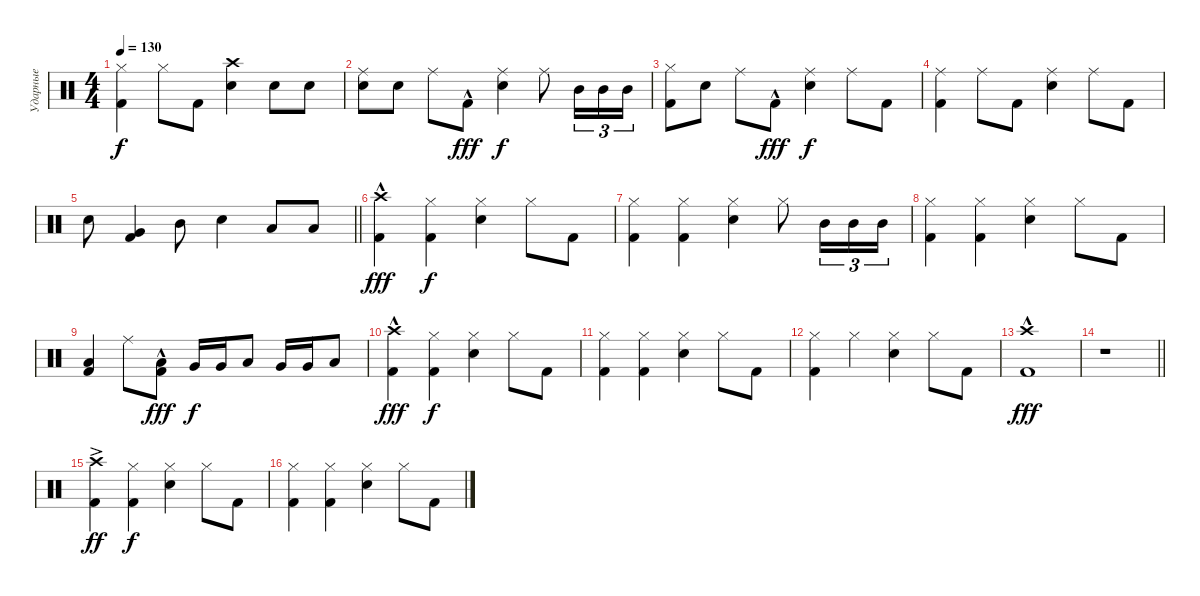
\track ("Ударные" "Ударные") {instrument percussion}
\staff {score}
\articulation defaults
\ts (4 4)
\tempo 130
\clef neutral
\ks c
("Kick (hit) 2" "Hi-Hat (closed)").4{dy f} "Hi-Hat (closed)".8 "Kick (hit) 2".8 ("Snare (hit) 2" "Crash high (hit)").4 "Snare (hit) 2".8 "Snare (hit) 2".8 |
("Snare (hit) 2" "Ride (middle)").8 "Snare (hit) 2".8 "Ride (middle)".8 "Kick (hit) 2"{hac}.8{dy fff} ("Snare (hit) 2" "Ride (middle)").4{dy f} "Ride (middle)".8 "Mid Tom (hit)".16{tu (3 2)} "Mid Tom (hit)".16{tu (3 2)} "Mid Tom (hit)".16{tu (3 2)} |
("Kick (hit) 2" "Hi-Hat (closed)").8 "Snare (hit) 2".8 "Ride (middle)".8 "Kick (hit) 2"{hac}.8{dy fff} ("Snare (hit) 2" "Ride (middle)").4{dy f} "Ride (middle)".8 "Kick (hit) 2".8 |
("Kick (hit) 2" "Ride (middle)").4 "Ride (middle)".8 "Kick (hit) 2".8 ("Snare (hit) 2" "Ride (middle)").4 "Ride (middle)".8 "Kick (hit) 2".8 |
\barLineRight lightlight "Snare (hit) 2".8
("Kick (hit) 2" "Very Low Tom (hit)").4 "Mid Tom (hit)".8 "Snare (hit) 2".4 "Low Floor Tom (hit)".8 "Low Floor Tom (hit)".8 |
("Kick (hit) 2" "Crash high (hit)"{hac}).4{dy fff} ("Kick (hit) 2" "Hi-Hat (closed)").4{dy f} ("Snare (hit) 2" "Hi-Hat (closed)").4 "Hi-Hat (closed)".8 "Kick (hit) 2".8 |
("Kick (hit) 2" "Hi-Hat (closed)").4 ("Kick (hit) 2" "Hi-Hat (closed)").4 ("Snare (hit) 2" "Hi-Hat (closed)").4 "Hi-Hat (closed)".8 "Mid Tom (hit)".16{tu (3 2)} "Mid Tom (hit)".16{tu (3 2)} "Mid Tom (hit)".16{tu (3 2)} |
("Kick (hit) 2" "Hi-Hat (closed)").4 ("Kick (hit) 2" "Hi-Hat (closed)").4 ("Snare (hit) 2" "Hi-Hat (closed)").4 "Hi-Hat (closed)".8 "Kick (hit) 2".8 |
("Kick (hit) 2" "Low Tom (hit)").4 "Ride (middle)".8 ("Kick (hit) 2"{hac} "Low Tom (hit)").8{dy fff} "Very Low Tom (hit)".16{dy f} "Very Low Tom (hit)".16 "Low Floor Tom (hit)".8 "Very Low Tom (hit)".16 "Very Low Tom (hit)".16 "Low Floor Tom (hit)".8 |
("Kick (hit) 2" "Crash high (hit)"{hac}).4{dy fff} ("Kick (hit) 2" "Hi-Hat (closed)").4{dy f} ("Snare (hit) 2" "Hi-Hat (closed)").4 "Hi-Hat (closed)".8 "Kick (hit) 2".8 |
("Kick (hit) 2" "Hi-Hat (closed)").4 ("Kick (hit) 2" "Hi-Hat (closed)").4 ("Snare (hit) 2" "Hi-Hat (closed)").4 "Hi-Hat (closed)".8 "Kick (hit) 2".8 |
("Kick (hit) 2" "Hi-Hat (closed)").4 "Hi-Hat (closed)".4 ("Snare (hit) 2" "Hi-Hat (closed)").4 "Hi-Hat (closed)".8 "Kick (hit) 2".8 |
("Kick (hit) 2" "Crash high (hit)"{hac}).1{dy fff} |
\barLineRight lightlight
r.1 |
("Kick (hit) 2" "Crash high (hit)"{ac}).4{dy ff} ("Kick (hit) 2" "Hi-Hat (closed)").4{dy f} ("Snare (hit) 2" "Hi-Hat (closed)").4 "Hi-Hat (closed)".8 "Kick (hit) 2".8 |
("Kick (hit) 2" "Hi-Hat (closed)").4 ("Kick (hit) 2" "Hi-Hat (closed)").4 ("Snare (hit) 2" "Hi-Hat (closed)").4 "Hi-Hat (closed)".8 "Kick (hit) 2".8
